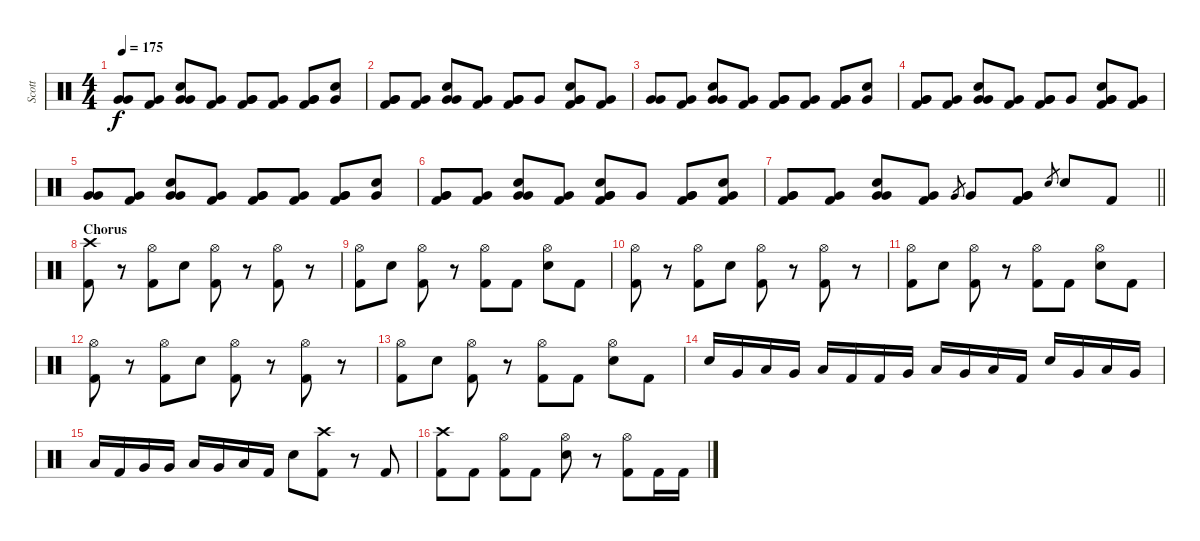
\track ("Scott" "Scott") {instrument percussion}
\staff {score}
\articulation defaults
\ts (4 4)
\tempo 175
\clef neutral
\ks c
("Very Low Tom (hit)" "Very Low Tom (hit)").8{dy f} ("Very Low Tom (hit)" "Kick (hit) 2").8 ("Very Low Tom (hit)" "Very Low Tom (hit)" "Electric Snare (hit)").8 ("Very Low Tom (hit)" "Kick (hit) 2").8 ("Very Low Tom (hit)" "Very Low Tom (hit)" "Kick (hit) 2").8 ("Very Low Tom (hit)" "Kick (hit) 2").8 ("Very Low Tom (hit)" "Very Low Tom (hit)" "Kick (hit) 2").8 ("Very Low Tom (hit)" "Electric Snare (hit)").8 |
("Very Low Tom (hit)" "Very Low Tom (hit)" "Kick (hit) 2").8 ("Very Low Tom (hit)" "Kick (hit) 2").8 ("Very Low Tom (hit)" "Very Low Tom (hit)" "Electric Snare (hit)").8 ("Very Low Tom (hit)" "Kick (hit) 2").8 ("Very Low Tom (hit)" "Very Low Tom (hit)" "Kick (hit) 2").8 "Very Low Tom (hit)".8 ("Very Low Tom (hit)" "Very Low Tom (hit)" "Electric Snare (hit)" "Kick (hit) 2").8 ("Very Low Tom (hit)" "Kick (hit) 2").8 |
("Very Low Tom (hit)" "Very Low Tom (hit)").8 ("Very Low Tom (hit)" "Kick (hit) 2").8 ("Very Low Tom (hit)" "Very Low Tom (hit)" "Electric Snare (hit)").8 ("Very Low Tom (hit)" "Kick (hit) 2").8 ("Very Low Tom (hit)" "Very Low Tom (hit)" "Kick (hit) 2").8 ("Very Low Tom (hit)" "Kick (hit) 2").8 ("Very Low Tom (hit)" "Very Low Tom (hit)" "Kick (hit) 2").8 ("Very Low Tom (hit)" "Electric Snare (hit)").8 |
("Very Low Tom (hit)" "Very Low Tom (hit)" "Kick (hit) 2").8 ("Very Low Tom (hit)" "Kick (hit) 2").8 ("Very Low Tom (hit)" "Very Low Tom (hit)" "Electric Snare (hit)").8 ("Very Low Tom (hit)" "Kick (hit) 2").8 ("Very Low Tom (hit)" "Very Low Tom (hit)" "Kick (hit) 2").8 "Very Low Tom (hit)".8 ("Very Low Tom (hit)" "Very Low Tom (hit)" "Electric Snare (hit)" "Kick (hit) 2").8 ("Very Low Tom (hit)" "Kick (hit) 2").8 |
("Very Low Tom (hit)" "Very Low Tom (hit)").8 ("Very Low Tom (hit)" "Kick (hit) 2").8 ("Very Low Tom (hit)" "Very Low Tom (hit)" "Electric Snare (hit)").8 ("Very Low Tom (hit)" "Kick (hit) 2").8 ("Very Low Tom (hit)" "Very Low Tom (hit)" "Kick (hit) 2").8 ("Very Low Tom (hit)" "Kick (hit) 2").8 ("Very Low Tom (hit)" "Very Low Tom (hit)" "Kick (hit) 2").8 ("Very Low Tom (hit)" "Electric Snare (hit)").8 |
("Very Low Tom (hit)" "Very Low Tom (hit)" "Kick (hit) 2").8 ("Very Low Tom (hit)" "Kick (hit) 2").8 ("Very Low Tom (hit)" "Very Low Tom (hit)" "Electric Snare (hit)").8 ("Very Low Tom (hit)" "Kick (hit) 2").8 ("Very Low Tom (hit)" "Very Low Tom (hit)" "Electric Snare (hit)" "Kick (hit) 2").8 "Very Low Tom (hit)".8 ("Very Low Tom (hit)" "Very Low Tom (hit)" "Kick (hit) 2").8 ("Very Low Tom (hit)" "Electric Snare (hit)" "Kick (hit) 2").8 |
\barLineRight lightlight
("Very Low Tom (hit)" "Very Low Tom (hit)" "Kick (hit) 2").8 ("Very Low Tom (hit)" "Kick (hit) 2").8 ("Very Low Tom (hit)" "Very Low Tom (hit)" "Electric Snare (hit)").8 ("Very Low Tom (hit)" "Kick (hit) 2").8 "Very Low Tom (hit)".8{gr} "Very Low Tom (hit)".8 ("Very Low Tom (hit)" "Very Low Tom (hit)" "Kick (hit) 2").8 "Electric Snare (hit)".8{gr} "Electric Snare (hit)".8 "Kick (hit) 2".8 |
\section ("" "Chorus")
("Crash high (hit)" "Kick (hit) 2").8 r.8 ("Hi-Hat (open)" "Kick (hit) 2").8 "Electric Snare (hit)".8 ("Hi-Hat (open)" "Kick (hit) 2").8 r.8 ("Hi-Hat (open)" "Kick (hit) 2").8 r.8 |
("Hi-Hat (open)" "Kick (hit) 2").8 "Electric Snare (hit)".8 ("Hi-Hat (open)" "Kick (hit) 2").8 r.8 ("Hi-Hat (open)" "Kick (hit) 2").8 "Kick (hit) 2".8 ("Hi-Hat (open)" "Electric Snare (hit)").8 "Kick (hit) 2".8 |
("Hi-Hat (open)" "Kick (hit) 2").8 r.8 ("Hi-Hat (open)" "Kick (hit) 2").8 "Electric Snare (hit)".8 ("Hi-Hat (open)" "Kick (hit) 2").8 r.8 ("Hi-Hat (open)" "Kick (hit) 2").8 r.8 |
("Hi-Hat (open)" "Kick (hit) 2").8 "Electric Snare (hit)".8 ("Hi-Hat (open)" "Kick (hit) 2").8 r.8 ("Hi-Hat (open)" "Kick (hit) 2").8 "Kick (hit) 2".8 ("Hi-Hat (open)" "Electric Snare (hit)").8 "Kick (hit) 2".8 |
("Hi-Hat (open)" "Kick (hit) 2").8 r.8 ("Hi-Hat (open)" "Kick (hit) 2").8 "Electric Snare (hit)".8 ("Hi-Hat (open)" "Kick (hit) 2").8 r.8 ("Hi-Hat (open)" "Kick (hit) 2").8 r.8 |
("Hi-Hat (open)" "Kick (hit) 2").8 "Electric Snare (hit)".8 ("Hi-Hat (open)" "Kick (hit) 2").8 r.8 ("Hi-Hat (open)" "Kick (hit) 2").8 "Kick (hit) 2".8 ("Hi-Hat (open)" "Electric Snare (hit)").8 "Kick (hit) 2".8 |
"Electric Snare (hit)".16 "Very Low Tom (hit)".16 "Low Floor Tom (hit)".16 "Very Low Tom (hit)".16 "Low Floor Tom (hit)".16 "Kick (hit) 2".16 "Kick (hit) 2".16 "Very Low Tom (hit)".16 "Low Floor Tom (hit)".16 "Very Low Tom (hit)".16 "Low Floor Tom (hit)".16 "Kick (hit) 2".16 "Electric Snare (hit)".16 "Very Low Tom (hit)".16 "Low Floor Tom (hit)".16 "Very Low Tom (hit)".16 |
"Low Floor Tom (hit)".16 "Kick (hit) 2".16 "Very Low Tom (hit)".16 "Very Low Tom (hit)".16 "Low Floor Tom (hit)".16 "Very Low Tom (hit)".16 "Low Floor Tom (hit)".16 "Kick (hit) 2".16 "Electric Snare (hit)".8 ("Crash high (hit)" "Kick (hit) 2").8 r.8 "Kick (hit) 2".8 |
("Crash high (hit)" "Kick (hit) 2").8 "Kick (hit) 2".8 ("Hi-Hat (open)" "Kick (hit) 2").8 "Kick (hit) 2".8 ("Hi-Hat (open)" "Electric Snare (hit)").8 r.8 ("Hi-Hat (open)" "Kick (hit) 2").8 "Kick (hit) 2".16 "Kick (hit) 2".16
